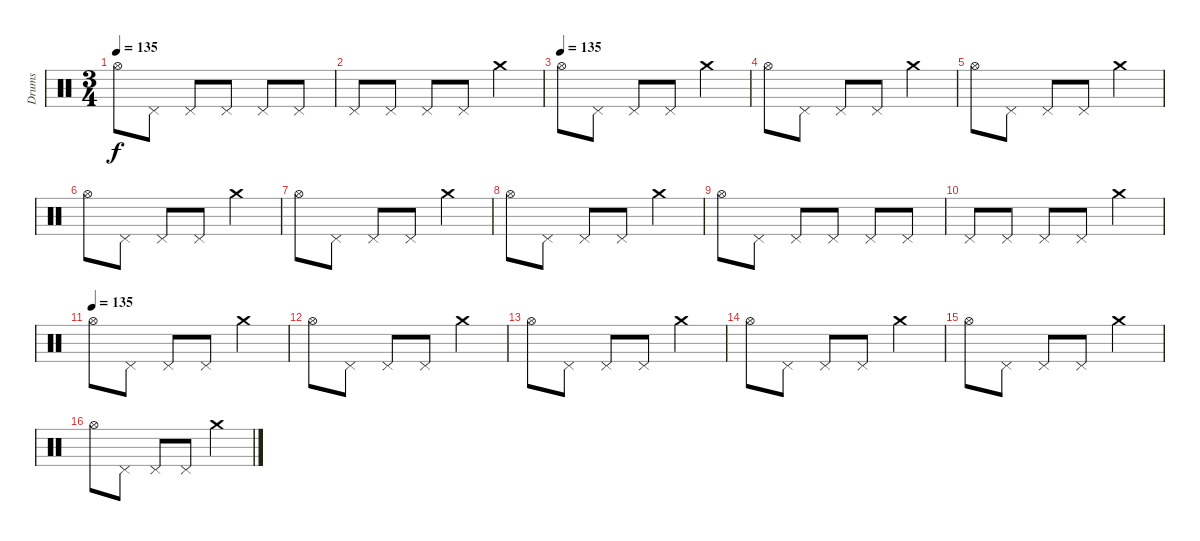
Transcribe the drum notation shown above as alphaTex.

\track ("Drums" "Drums") {instrument percussion}
\staff {score}
\articulation defaults
\ts (3 4)
\tempo 135
\clef neutral
\ks c "Hi-Hat (open)".8{dy f} "Pedal Hi-Hat (hit)".8 "Pedal Hi-Hat (hit)".8 "Pedal Hi-Hat (hit)".8 "Pedal Hi-Hat (hit)".8 "Pedal Hi-Hat (hit)".8
|
"Pedal Hi-Hat (hit)".8 "Pedal Hi-Hat (hit)".8 "Pedal Hi-Hat (hit)".8 "Pedal Hi-Hat (hit)".8 "Crash medium (hit)".4 |
\tempo (135)
"Hi-Hat (open)".8 "Pedal Hi-Hat (hit)".8 "Pedal Hi-Hat (hit)".8 "Pedal Hi-Hat (hit)".8 "Crash medium (hit)".4 |
"Hi-Hat (open)".8 "Pedal Hi-Hat (hit)".8 "Pedal Hi-Hat (hit)".8 "Pedal Hi-Hat (hit)".8 "Crash medium (hit)".4 |
"Hi-Hat (open)".8 "Pedal Hi-Hat (hit)".8 "Pedal Hi-Hat (hit)".8 "Pedal Hi-Hat (hit)".8 "Crash medium (hit)".4 |
"Hi-Hat (open)".8 "Pedal Hi-Hat (hit)".8 "Pedal Hi-Hat (hit)".8 "Pedal Hi-Hat (hit)".8 "Crash medium (hit)".4 |
"Hi-Hat (open)".8 "Pedal Hi-Hat (hit)".8 "Pedal Hi-Hat (hit)".8 "Pedal Hi-Hat (hit)".8 "Crash medium (hit)".4 |
"Hi-Hat (open)".8 "Pedal Hi-Hat (hit)".8 "Pedal Hi-Hat (hit)".8 "Pedal Hi-Hat (hit)".8 "Crash medium (hit)".4 |
"Hi-Hat (open)".8 "Pedal Hi-Hat (hit)".8 "Pedal Hi-Hat (hit)".8 "Pedal Hi-Hat (hit)".8 "Pedal Hi-Hat (hit)".8 "Pedal Hi-Hat (hit)".8 |
"Pedal Hi-Hat (hit)".8 "Pedal Hi-Hat (hit)".8 "Pedal Hi-Hat (hit)".8 "Pedal Hi-Hat (hit)".8 "Crash medium (hit)".4 |
\tempo (135)
"Hi-Hat (open)".8 "Pedal Hi-Hat (hit)".8 "Pedal Hi-Hat (hit)".8 "Pedal Hi-Hat (hit)".8 "Crash medium (hit)".4 |
"Hi-Hat (open)".8 "Pedal Hi-Hat (hit)".8 "Pedal Hi-Hat (hit)".8 "Pedal Hi-Hat (hit)".8 "Crash medium (hit)".4 |
"Hi-Hat (open)".8 "Pedal Hi-Hat (hit)".8 "Pedal Hi-Hat (hit)".8 "Pedal Hi-Hat (hit)".8 "Crash medium (hit)".4 |
"Hi-Hat (open)".8 "Pedal Hi-Hat (hit)".8 "Pedal Hi-Hat (hit)".8 "Pedal Hi-Hat (hit)".8 "Crash medium (hit)".4 |
"Hi-Hat (open)".8 "Pedal Hi-Hat (hit)".8 "Pedal Hi-Hat (hit)".8 "Pedal Hi-Hat (hit)".8 "Crash medium (hit)".4 |
"Hi-Hat (open)".8 "Pedal Hi-Hat (hit)".8 "Pedal Hi-Hat (hit)".8 "Pedal Hi-Hat (hit)".8 "Crash medium (hit)".4
